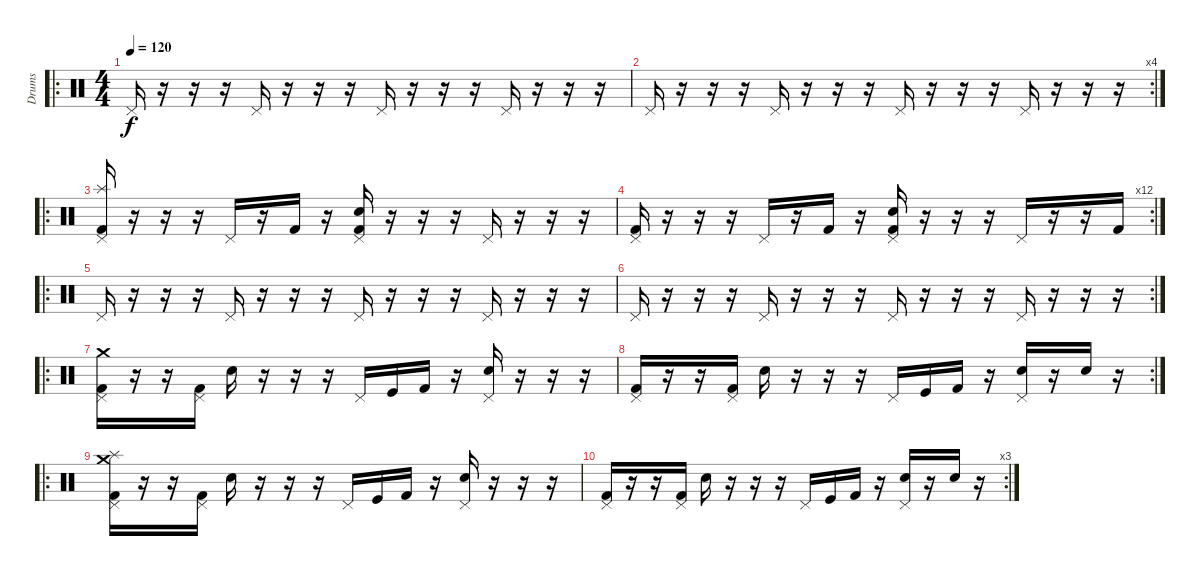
\track ("Drums" "Drums") {instrument percussion}
\staff {score}
\articulation defaults
\ro
\ts (4 4)
\tempo 120
\clef neutral
\ks c "Pedal Hi-Hat (hit)".16{dy f}
r.16 r.16 r.16 "Pedal Hi-Hat (hit)".16 r.16 r.16 r.16 "Pedal Hi-Hat (hit)".16 r.16 r.16 r.16 "Pedal Hi-Hat (hit)".16 r.16 r.16 r.16 |
\rc 4 "Pedal Hi-Hat (hit)".16
r.16 r.16 r.16 "Pedal Hi-Hat (hit)".16 r.16 r.16 r.16 "Pedal Hi-Hat (hit)".16 r.16 r.16 r.16 "Pedal Hi-Hat (hit)".16 r.16 r.16 r.16 |
\ro
("Pedal Hi-Hat (hit)" "Splash (hit)" "Kick (hit) 2").16 r.16 r.16 r.16 "Pedal Hi-Hat (hit)".16 r.16 "Kick (hit) 2".16 r.16 ("Pedal Hi-Hat (hit)" "Snare (hit) 2" "Kick (hit) 2").16 r.16 r.16 r.16 "Pedal Hi-Hat (hit)".16 r.16 r.16 r.16 |
\rc 12
("Pedal Hi-Hat (hit)" "Kick (hit) 2").16 r.16 r.16 r.16 "Pedal Hi-Hat (hit)".16 r.16 "Kick (hit) 2".16 r.16 ("Pedal Hi-Hat (hit)" "Snare (hit) 2" "Kick (hit) 2").16 r.16 r.16 r.16 "Pedal Hi-Hat (hit)".16 r.16 r.16 "Kick (hit) 2".16 |
\ro "Pedal Hi-Hat (hit)".16
r.16 r.16 r.16 "Pedal Hi-Hat (hit)".16 r.16 r.16 r.16 "Pedal Hi-Hat (hit)".16 r.16 r.16 r.16 "Pedal Hi-Hat (hit)".16 r.16 r.16 r.16 |
\rc 2 "Pedal Hi-Hat (hit)".16
r.16 r.16 r.16 "Pedal Hi-Hat (hit)".16 r.16 r.16 r.16 "Pedal Hi-Hat (hit)".16 r.16 r.16 r.16 "Pedal Hi-Hat (hit)".16 r.16 r.16 r.16 |
\ro
("Pedal Hi-Hat (hit)" "Kick (hit) 2" "Crash medium (hit)").16 r.16 r.16 ("Pedal Hi-Hat (hit)" "Kick (hit) 2").16 "Snare (hit) 2".16 r.16 r.16 r.16 "Pedal Hi-Hat (hit)".16 "Kick (hit)".16 "Kick (hit) 2".16 r.16 ("Pedal Hi-Hat (hit)" "Snare (hit) 2").16 r.16 r.16 r.16 |
\rc 2
("Pedal Hi-Hat (hit)" "Kick (hit) 2").16 r.16 r.16 ("Pedal Hi-Hat (hit)" "Kick (hit) 2").16 "Snare (hit) 2".16 r.16 r.16 r.16 "Pedal Hi-Hat (hit)".16 "Kick (hit)".16 "Kick (hit) 2".16 r.16 ("Pedal Hi-Hat (hit)" "Snare (hit) 2").16 r.16 "Snare (hit) 2".16 r.16 |
\ro
("Splash (hit)" "Pedal Hi-Hat (hit)" "Kick (hit) 2" "Crash medium (hit)").16 r.16 r.16 ("Pedal Hi-Hat (hit)" "Kick (hit) 2").16 "Snare (hit) 2".16 r.16 r.16 r.16 "Pedal Hi-Hat (hit)".16 "Kick (hit)".16 "Kick (hit) 2".16 r.16 ("Pedal Hi-Hat (hit)" "Snare (hit) 2").16 r.16 r.16 r.16 |
\rc 3
("Pedal Hi-Hat (hit)" "Kick (hit) 2").16 r.16 r.16 ("Pedal Hi-Hat (hit)" "Kick (hit) 2").16 "Snare (hit) 2".16 r.16 r.16 r.16 "Pedal Hi-Hat (hit)".16 "Kick (hit)".16 "Kick (hit) 2".16 r.16 ("Pedal Hi-Hat (hit)" "Snare (hit) 2").16 r.16 "Snare (hit) 2".16 r.16
